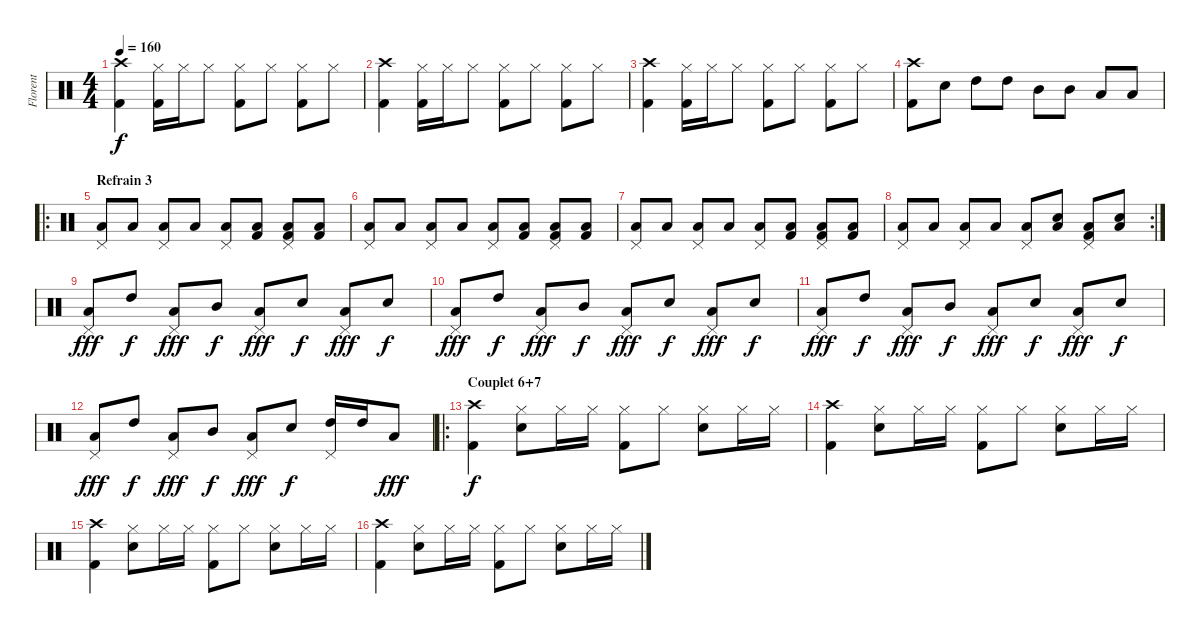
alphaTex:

\track ("Florent" "Florent") {instrument percussion}
\staff {score}
\articulation defaults
\ts (4 4)
\tempo 160
\clef neutral
\ks c
("Crash high (hit)" "Kick (hit) 2").4{dy f} ("Hi-Hat (closed)" "Kick (hit) 2").16 "Hi-Hat (closed)".16 "Hi-Hat (closed)".8 ("Hi-Hat (closed)" "Kick (hit) 2").8 "Hi-Hat (closed)".8 ("Hi-Hat (closed)" "Kick (hit) 2").8 "Hi-Hat (closed)".8 |
("Crash high (hit)" "Kick (hit) 2").4 ("Hi-Hat (closed)" "Kick (hit) 2").16 "Hi-Hat (closed)".16 "Hi-Hat (closed)".8 ("Hi-Hat (closed)" "Kick (hit) 2").8 "Hi-Hat (closed)".8 ("Hi-Hat (closed)" "Kick (hit) 2").8 "Hi-Hat (closed)".8 |
("Crash high (hit)" "Kick (hit) 2").4 ("Hi-Hat (closed)" "Kick (hit) 2").16 "Hi-Hat (closed)".16 "Hi-Hat (closed)".8 ("Hi-Hat (closed)" "Kick (hit) 2").8 "Hi-Hat (closed)".8 ("Hi-Hat (closed)" "Kick (hit) 2").8 "Hi-Hat (closed)".8 |
("Crash high (hit)" "Kick (hit) 2").8 "Snare (hit) 2".8 "High Tom (hit)".8 "High Tom (hit)".8 "Mid Tom (hit)".8 "Mid Tom (hit)".8 "Low Tom (hit)".8 "Low Tom (hit)".8 |
\ro
\section ("" "Refrain 3")
("Low Tom (hit)" "Pedal Hi-Hat (hit)").8 "Low Tom (hit)".8 ("Low Tom (hit)" "Pedal Hi-Hat (hit)").8 "Low Tom (hit)".8 ("Low Tom (hit)" "Pedal Hi-Hat (hit)").8 ("Kick (hit) 2" "Low Tom (hit)").8 ("Kick (hit) 2" "Low Tom (hit)" "Pedal Hi-Hat (hit)").8 ("Kick (hit) 2" "Low Tom (hit)").8 |
("Low Tom (hit)" "Pedal Hi-Hat (hit)").8 "Low Tom (hit)".8 ("Low Tom (hit)" "Pedal Hi-Hat (hit)").8 "Low Tom (hit)".8 ("Low Tom (hit)" "Pedal Hi-Hat (hit)").8 ("Kick (hit) 2" "Low Tom (hit)").8 ("Kick (hit) 2" "Low Tom (hit)" "Pedal Hi-Hat (hit)").8 ("Kick (hit) 2" "Low Tom (hit)").8 |
("Low Tom (hit)" "Pedal Hi-Hat (hit)").8 "Low Tom (hit)".8 ("Low Tom (hit)" "Pedal Hi-Hat (hit)").8 "Low Tom (hit)".8 ("Low Tom (hit)" "Pedal Hi-Hat (hit)").8 ("Kick (hit) 2" "Low Tom (hit)").8 ("Kick (hit) 2" "Low Tom (hit)" "Pedal Hi-Hat (hit)").8 ("Kick (hit) 2" "Low Tom (hit)").8 |
\rc 2
("Low Tom (hit)" "Pedal Hi-Hat (hit)").8 "Low Tom (hit)".8 ("Low Tom (hit)" "Pedal Hi-Hat (hit)").8 "Low Tom (hit)".8 ("Low Tom (hit)" "Pedal Hi-Hat (hit)").8 ("Snare (hit) 2" "Low Tom (hit)").8 ("Kick (hit) 2" "Low Tom (hit)" "Pedal Hi-Hat (hit)").8 ("Snare (hit) 2" "Low Tom (hit)").8 |
("Low Tom (hit)" "Pedal Hi-Hat (hit)").8{dy fff} "High Tom (hit)".8{dy f} ("Low Tom (hit)" "Pedal Hi-Hat (hit)").8{dy fff} "Mid Tom (hit)".8{dy f} ("Low Tom (hit)" "Pedal Hi-Hat (hit)").8{dy fff} "Snare (hit) 2".8{dy f} ("Low Tom (hit)" "Pedal Hi-Hat (hit)").8{dy fff} "Snare (hit) 2".8{dy f} |
("Low Tom (hit)" "Pedal Hi-Hat (hit)").8{dy fff} "High Tom (hit)".8{dy f} ("Low Tom (hit)" "Pedal Hi-Hat (hit)").8{dy fff} "Mid Tom (hit)".8{dy f} ("Low Tom (hit)" "Pedal Hi-Hat (hit)").8{dy fff} "Snare (hit) 2".8{dy f} ("Low Tom (hit)" "Pedal Hi-Hat (hit)").8{dy fff} "Snare (hit) 2".8{dy f} |
("Low Tom (hit)" "Pedal Hi-Hat (hit)").8{dy fff} "High Tom (hit)".8{dy f} ("Low Tom (hit)" "Pedal Hi-Hat (hit)").8{dy fff} "Mid Tom (hit)".8{dy f} ("Low Tom (hit)" "Pedal Hi-Hat (hit)").8{dy fff} "Snare (hit) 2".8{dy f} ("Low Tom (hit)" "Pedal Hi-Hat (hit)").8{dy fff} "Snare (hit) 2".8{dy f} |
("Low Tom (hit)" "Pedal Hi-Hat (hit)").8{dy fff} "High Tom (hit)".8{dy f} ("Low Tom (hit)" "Pedal Hi-Hat (hit)").8{dy fff} "Mid Tom (hit)".8{dy f} ("Low Tom (hit)" "Pedal Hi-Hat (hit)").8{dy fff} "Snare (hit) 2".8{dy f} ("High Tom (hit)" "Pedal Hi-Hat (hit)").16 "High Tom (hit)".16 "Low Tom (hit)".8{dy fff} |
\ro
\section ("" "Couplet 6+7")
("Crash high (hit)" "Kick (hit) 2").4{dy f} ("Hi-Hat (closed)" "Snare (hit) 2").8 "Hi-Hat (closed)".16 "Hi-Hat (closed)".16 ("Hi-Hat (closed)" "Kick (hit) 2").8 "Hi-Hat (closed)".8 ("Hi-Hat (closed)" "Snare (hit) 2").8 "Hi-Hat (closed)".16 "Hi-Hat (closed)".16 |
("Crash high (hit)" "Kick (hit) 2").4 ("Hi-Hat (closed)" "Snare (hit) 2").8 "Hi-Hat (closed)".16 "Hi-Hat (closed)".16 ("Hi-Hat (closed)" "Kick (hit) 2").8 "Hi-Hat (closed)".8 ("Hi-Hat (closed)" "Snare (hit) 2").8 "Hi-Hat (closed)".16 "Hi-Hat (closed)".16 |
("Crash high (hit)" "Kick (hit) 2").4 ("Hi-Hat (closed)" "Snare (hit) 2").8 "Hi-Hat (closed)".16 "Hi-Hat (closed)".16 ("Hi-Hat (closed)" "Kick (hit) 2").8 "Hi-Hat (closed)".8 ("Hi-Hat (closed)" "Snare (hit) 2").8 "Hi-Hat (closed)".16 "Hi-Hat (closed)".16 |
("Crash high (hit)" "Kick (hit) 2").4 ("Hi-Hat (closed)" "Snare (hit) 2").8 "Hi-Hat (closed)".16 "Hi-Hat (closed)".16 ("Hi-Hat (closed)" "Kick (hit) 2").8 "Hi-Hat (closed)".8 ("Hi-Hat (closed)" "Snare (hit) 2").8 "Hi-Hat (closed)".16 "Hi-Hat (closed)".16
